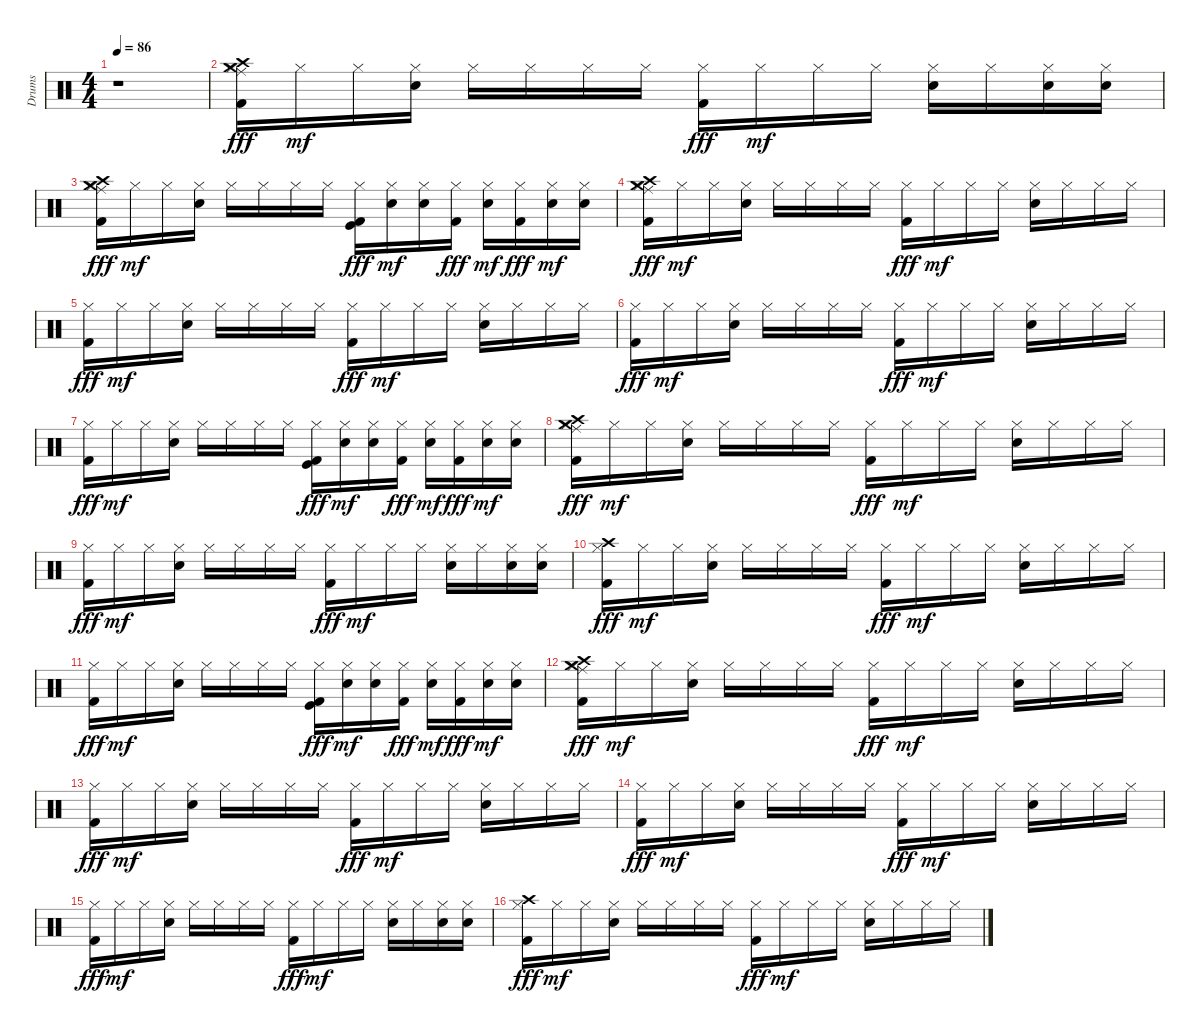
\track ("Drums" "Drums") {instrument percussion}
\staff {score}
\articulation defaults
\ts (4 4)
\tempo 86
\clef neutral
\ks c
r.1{dy fff} |
("Hi-Hat (closed)" "Crash high (hit)" "Crash medium (hit)" "Ride (middle)" "Kick (hit) 2").16 "Hi-Hat (closed)".16{dy mf} "Hi-Hat (closed)".16 ("Hi-Hat (closed)" "Snare (hit) 2").16 "Hi-Hat (closed)".16 "Hi-Hat (closed)".16 "Hi-Hat (closed)".16 "Hi-Hat (closed)".16 ("Hi-Hat (closed)" "Kick (hit) 2").16{dy fff} "Hi-Hat (closed)".16{dy mf} "Hi-Hat (closed)".16 "Hi-Hat (closed)".16 ("Hi-Hat (closed)" "Snare (hit) 2").16 "Hi-Hat (closed)".16 ("Hi-Hat (closed)" "Snare (hit) 2").16 ("Hi-Hat (closed)" "Snare (hit) 2").16 |
("Hi-Hat (closed)" "Crash high (hit)" "Crash medium (hit)" "Ride (middle)" "Kick (hit) 2").16{dy fff} "Hi-Hat (closed)".16{dy mf} "Hi-Hat (closed)".16 ("Hi-Hat (closed)" "Snare (hit) 2").16 "Hi-Hat (closed)".16 "Hi-Hat (closed)".16 "Hi-Hat (closed)".16 "Hi-Hat (closed)".16 ("Hi-Hat (closed)" "Kick (hit)" "Kick (hit) 2").16{dy fff} ("Hi-Hat (closed)" "Snare (hit) 2").16{dy mf} ("Hi-Hat (closed)" "Snare (hit) 2").16 ("Hi-Hat (closed)" "Kick (hit) 2").16{dy fff} ("Hi-Hat (closed)" "Snare (hit) 2").16{dy mf} ("Hi-Hat (closed)" "Kick (hit) 2").16{dy fff} ("Hi-Hat (closed)" "Snare (hit) 2").16{dy mf} ("Hi-Hat (closed)" "Snare (hit) 2").16 |
("Hi-Hat (closed)" "Crash high (hit)" "Crash medium (hit)" "Ride (middle)" "Kick (hit) 2").16{dy fff} "Hi-Hat (closed)".16{dy mf} "Hi-Hat (closed)".16 ("Hi-Hat (closed)" "Snare (hit) 2").16 "Hi-Hat (closed)".16 "Hi-Hat (closed)".16 "Hi-Hat (closed)".16 "Hi-Hat (closed)".16 ("Hi-Hat (closed)" "Kick (hit) 2").16{dy fff} "Hi-Hat (closed)".16{dy mf} "Hi-Hat (closed)".16 "Hi-Hat (closed)".16 ("Hi-Hat (closed)" "Snare (hit) 2").16 "Hi-Hat (closed)".16 "Hi-Hat (closed)".16 "Hi-Hat (closed)".16 |
("Hi-Hat (closed)" "Kick (hit) 2").16{dy fff} "Hi-Hat (closed)".16{dy mf} "Hi-Hat (closed)".16 ("Hi-Hat (closed)" "Snare (hit) 2").16 "Hi-Hat (closed)".16 "Hi-Hat (closed)".16 "Hi-Hat (closed)".16 "Hi-Hat (closed)".16 ("Hi-Hat (closed)" "Kick (hit) 2").16{dy fff} "Hi-Hat (closed)".16{dy mf} "Hi-Hat (closed)".16 "Hi-Hat (closed)".16 ("Hi-Hat (closed)" "Snare (hit) 2").16 "Hi-Hat (closed)".16 "Hi-Hat (closed)".16 "Hi-Hat (closed)".16 |
("Hi-Hat (closed)" "Kick (hit) 2").16{dy fff} "Hi-Hat (closed)".16{dy mf} "Hi-Hat (closed)".16 ("Hi-Hat (closed)" "Snare (hit) 2").16 "Hi-Hat (closed)".16 "Hi-Hat (closed)".16 "Hi-Hat (closed)".16 "Hi-Hat (closed)".16 ("Hi-Hat (closed)" "Kick (hit) 2").16{dy fff} "Hi-Hat (closed)".16{dy mf} "Hi-Hat (closed)".16 "Hi-Hat (closed)".16 ("Hi-Hat (closed)" "Snare (hit) 2").16 "Hi-Hat (closed)".16 "Hi-Hat (closed)".16 "Hi-Hat (closed)".16 |
("Hi-Hat (closed)" "Kick (hit) 2").16{dy fff} "Hi-Hat (closed)".16{dy mf} "Hi-Hat (closed)".16 ("Hi-Hat (closed)" "Snare (hit) 2").16 "Hi-Hat (closed)".16 "Hi-Hat (closed)".16 "Hi-Hat (closed)".16 "Hi-Hat (closed)".16 ("Hi-Hat (closed)" "Kick (hit)" "Kick (hit) 2").16{dy fff} ("Hi-Hat (closed)" "Snare (hit) 2").16{dy mf} ("Hi-Hat (closed)" "Snare (hit) 2").16 ("Hi-Hat (closed)" "Kick (hit) 2").16{dy fff} ("Hi-Hat (closed)" "Snare (hit) 2").16{dy mf} ("Hi-Hat (closed)" "Kick (hit) 2").16{dy fff} ("Hi-Hat (closed)" "Snare (hit) 2").16{dy mf} ("Hi-Hat (closed)" "Snare (hit) 2").16 |
("Hi-Hat (closed)" "Crash high (hit)" "Ride (middle)" "Crash medium (hit)" "Kick (hit) 2").16{dy fff} "Hi-Hat (closed)".16{dy mf} "Hi-Hat (closed)".16 ("Hi-Hat (closed)" "Snare (hit) 2").16 "Hi-Hat (closed)".16 "Hi-Hat (closed)".16 "Hi-Hat (closed)".16 "Hi-Hat (closed)".16 ("Hi-Hat (closed)" "Kick (hit) 2").16{dy fff} "Hi-Hat (closed)".16{dy mf} "Hi-Hat (closed)".16 "Hi-Hat (closed)".16 ("Hi-Hat (closed)" "Snare (hit) 2").16 "Hi-Hat (closed)".16 "Hi-Hat (closed)".16 "Hi-Hat (closed)".16 |
("Hi-Hat (closed)" "Kick (hit) 2").16{dy fff} "Hi-Hat (closed)".16{dy mf} "Hi-Hat (closed)".16 ("Hi-Hat (closed)" "Snare (hit) 2").16 "Hi-Hat (closed)".16 "Hi-Hat (closed)".16 "Hi-Hat (closed)".16 "Hi-Hat (closed)".16 ("Hi-Hat (closed)" "Kick (hit) 2").16{dy fff} "Hi-Hat (closed)".16{dy mf} "Hi-Hat (closed)".16 "Hi-Hat (closed)".16 ("Hi-Hat (closed)" "Snare (hit) 2").16 "Hi-Hat (closed)".16 ("Hi-Hat (closed)" "Snare (hit) 2").16 ("Hi-Hat (closed)" "Snare (hit) 2").16 |
("Hi-Hat (closed)" "Crash high (hit)" "Kick (hit) 2").16{dy fff} "Hi-Hat (closed)".16{dy mf} "Hi-Hat (closed)".16 ("Hi-Hat (closed)" "Snare (hit) 2").16 "Hi-Hat (closed)".16 "Hi-Hat (closed)".16 "Hi-Hat (closed)".16 "Hi-Hat (closed)".16 ("Hi-Hat (closed)" "Kick (hit) 2").16{dy fff} "Hi-Hat (closed)".16{dy mf} "Hi-Hat (closed)".16 "Hi-Hat (closed)".16 ("Hi-Hat (closed)" "Snare (hit) 2").16 "Hi-Hat (closed)".16 "Hi-Hat (closed)".16 "Hi-Hat (closed)".16 |
("Hi-Hat (closed)" "Kick (hit) 2").16{dy fff} "Hi-Hat (closed)".16{dy mf} "Hi-Hat (closed)".16 ("Hi-Hat (closed)" "Snare (hit) 2").16 "Hi-Hat (closed)".16 "Hi-Hat (closed)".16 "Hi-Hat (closed)".16 "Hi-Hat (closed)".16 ("Hi-Hat (closed)" "Kick (hit)" "Kick (hit) 2").16{dy fff} ("Hi-Hat (closed)" "Snare (hit) 2").16{dy mf} ("Hi-Hat (closed)" "Snare (hit) 2").16 ("Hi-Hat (closed)" "Kick (hit) 2").16{dy fff} ("Hi-Hat (closed)" "Snare (hit) 2").16{dy mf} ("Hi-Hat (closed)" "Kick (hit) 2").16{dy fff} ("Hi-Hat (closed)" "Snare (hit) 2").16{dy mf} ("Hi-Hat (closed)" "Snare (hit) 2").16 |
("Hi-Hat (closed)" "Crash high (hit)" "Ride (middle)" "Crash medium (hit)" "Kick (hit) 2").16{dy fff} "Hi-Hat (closed)".16{dy mf} "Hi-Hat (closed)".16 ("Hi-Hat (closed)" "Snare (hit) 2").16 "Hi-Hat (closed)".16 "Hi-Hat (closed)".16 "Hi-Hat (closed)".16 "Hi-Hat (closed)".16 ("Hi-Hat (closed)" "Kick (hit) 2").16{dy fff} "Hi-Hat (closed)".16{dy mf} "Hi-Hat (closed)".16 "Hi-Hat (closed)".16 ("Hi-Hat (closed)" "Snare (hit) 2").16 "Hi-Hat (closed)".16 "Hi-Hat (closed)".16 "Hi-Hat (closed)".16 |
("Hi-Hat (closed)" "Kick (hit) 2").16{dy fff} "Hi-Hat (closed)".16{dy mf} "Hi-Hat (closed)".16 ("Hi-Hat (closed)" "Snare (hit) 2").16 "Hi-Hat (closed)".16 "Hi-Hat (closed)".16 "Hi-Hat (closed)".16 "Hi-Hat (closed)".16 ("Hi-Hat (closed)" "Kick (hit) 2").16{dy fff} "Hi-Hat (closed)".16{dy mf} "Hi-Hat (closed)".16 "Hi-Hat (closed)".16 ("Hi-Hat (closed)" "Snare (hit) 2").16 "Hi-Hat (closed)".16 "Hi-Hat (closed)".16 "Hi-Hat (closed)".16 |
("Hi-Hat (closed)" "Kick (hit) 2").16{dy fff} "Hi-Hat (closed)".16{dy mf} "Hi-Hat (closed)".16 ("Hi-Hat (closed)" "Snare (hit) 2").16 "Hi-Hat (closed)".16 "Hi-Hat (closed)".16 "Hi-Hat (closed)".16 "Hi-Hat (closed)".16 ("Hi-Hat (closed)" "Kick (hit) 2").16{dy fff} "Hi-Hat (closed)".16{dy mf} "Hi-Hat (closed)".16 "Hi-Hat (closed)".16 ("Hi-Hat (closed)" "Snare (hit) 2").16 "Hi-Hat (closed)".16 "Hi-Hat (closed)".16 "Hi-Hat (closed)".16 |
("Hi-Hat (closed)" "Kick (hit) 2").16{dy fff} "Hi-Hat (closed)".16{dy mf} "Hi-Hat (closed)".16 ("Hi-Hat (closed)" "Snare (hit) 2").16 "Hi-Hat (closed)".16 "Hi-Hat (closed)".16 "Hi-Hat (closed)".16 "Hi-Hat (closed)".16 ("Hi-Hat (closed)" "Kick (hit) 2").16{dy fff} "Hi-Hat (closed)".16{dy mf} "Hi-Hat (closed)".16 "Hi-Hat (closed)".16 ("Hi-Hat (closed)" "Snare (hit) 2").16 "Hi-Hat (closed)".16 ("Hi-Hat (closed)" "Snare (hit) 2").16 ("Hi-Hat (closed)" "Snare (hit) 2").16 |
("Hi-Hat (closed)" "Crash high (hit)" "Kick (hit) 2").16{dy fff} "Hi-Hat (closed)".16{dy mf} "Hi-Hat (closed)".16 ("Hi-Hat (closed)" "Snare (hit) 2").16 "Hi-Hat (closed)".16 "Hi-Hat (closed)".16 "Hi-Hat (closed)".16 "Hi-Hat (closed)".16 ("Hi-Hat (closed)" "Kick (hit) 2").16{dy fff} "Hi-Hat (closed)".16{dy mf} "Hi-Hat (closed)".16 "Hi-Hat (closed)".16 ("Hi-Hat (closed)" "Snare (hit) 2").16 "Hi-Hat (closed)".16 "Hi-Hat (closed)".16 "Hi-Hat (closed)".16
